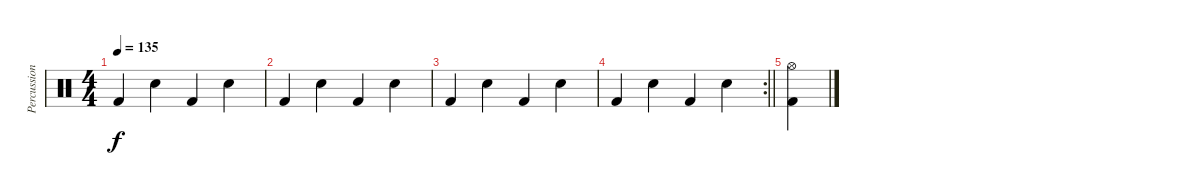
\track ("Percussion" "Percussion") {instrument percussion}
\staff
\articulation defaults
\ts (4 4)
\tempo 135
\clef neutral
\ks c "Kick (hit) 2".4{dy f} "Snare (hit) 2".4 "Kick (hit) 2".4 "Snare (hit) 2".4
|
"Kick (hit) 2".4 "Snare (hit) 2".4 "Kick (hit) 2".4 "Snare (hit) 2".4 |
"Kick (hit) 2".4 "Snare (hit) 2".4 "Kick (hit) 2".4 "Snare (hit) 2".4 |
\rc 2
\barLineRight lightlight "Kick (hit) 2".4 "Snare (hit) 2".4 "Kick (hit) 2".4 "Snare (hit) 2".4
|
("Hi-Hat (open)" "Kick (hit) 2").4
